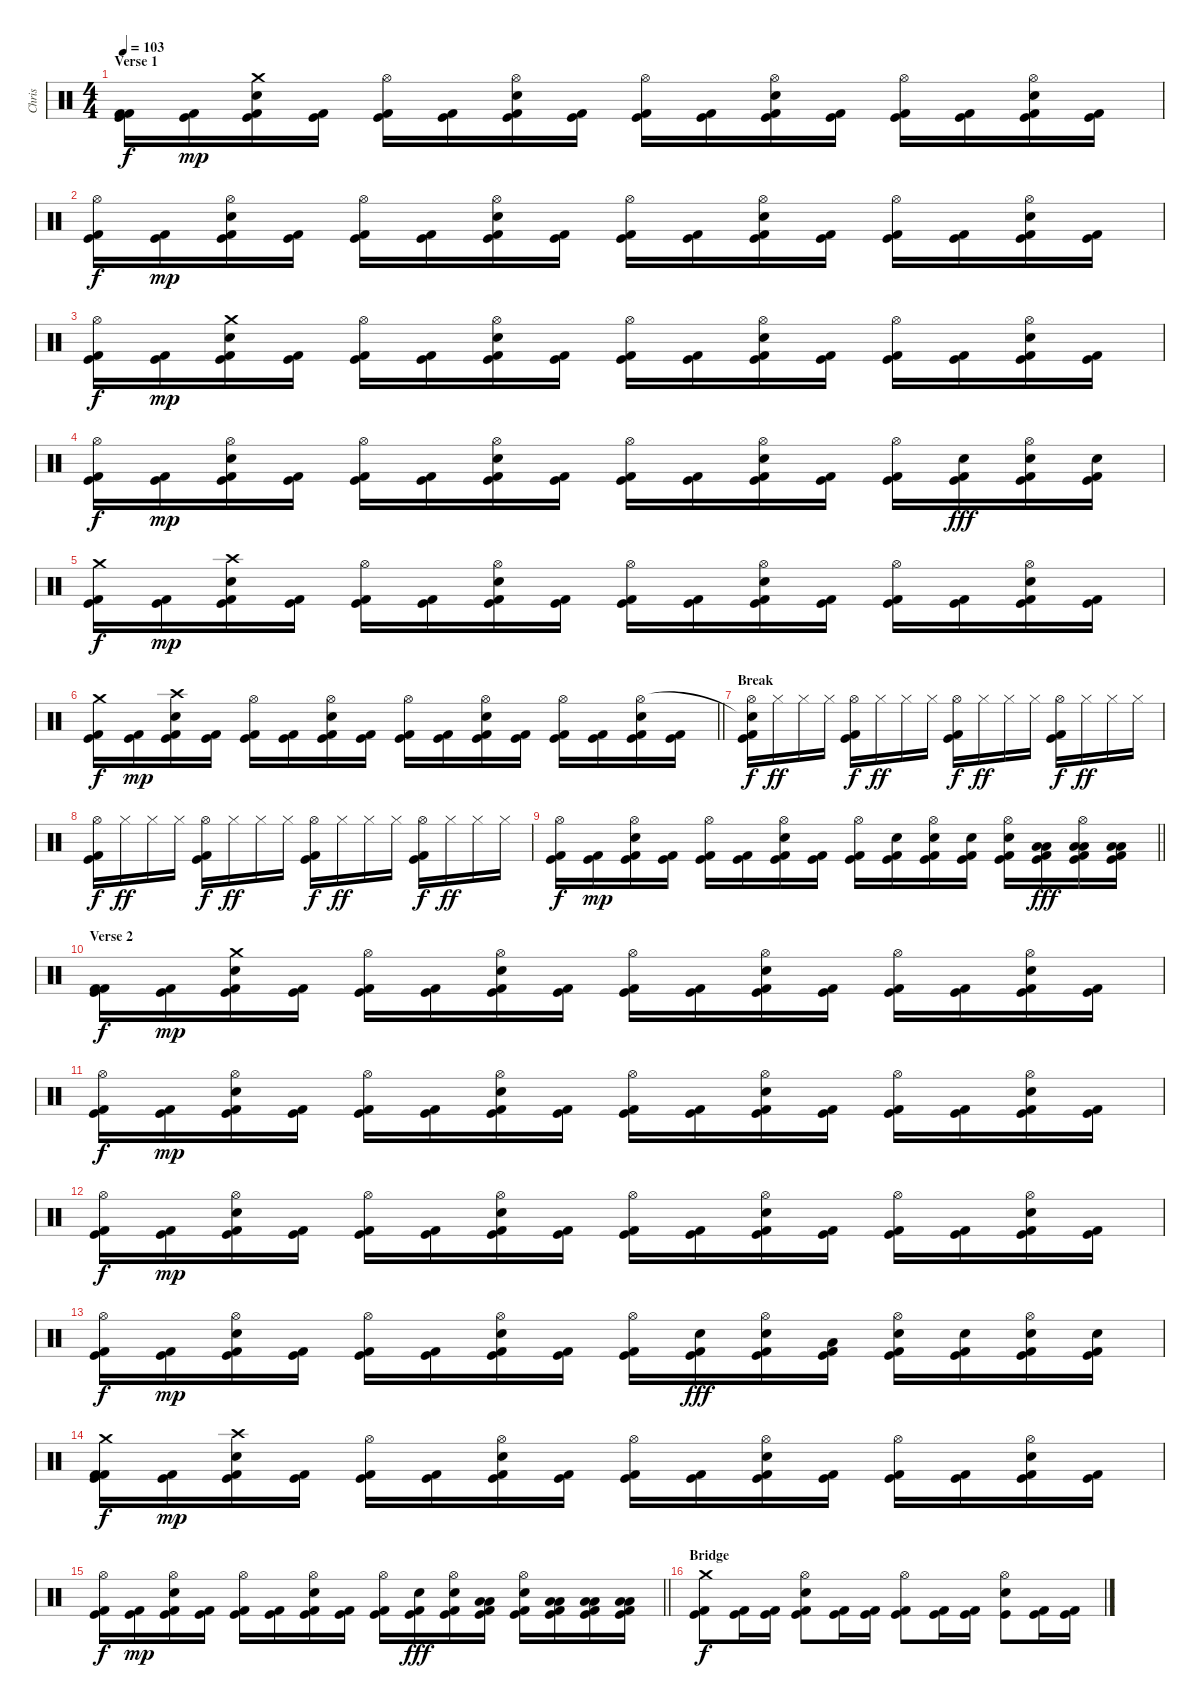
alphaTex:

\track ("Chris" "Chris") {instrument percussion}
\staff {score}
\articulation defaults
\ts (4 4)
\section ("" "Verse 1")
\tempo 103
\clef neutral
\ks c
("Kick (hit)" "Kick (hit) 2" "Kick (hit) 2").16{dy f} ("Kick (hit)" "Kick (hit) 2").16{dy mp} ("Kick (hit)" "Kick (hit) 2" "Electric Snare (hit)" "Crash medium (hit)").16 ("Kick (hit)" "Kick (hit) 2").16 ("Kick (hit)" "Kick (hit) 2" "Hi-Hat (open)").16 ("Kick (hit)" "Kick (hit) 2").16 ("Kick (hit)" "Kick (hit) 2" "Electric Snare (hit)" "Hi-Hat (open)").16 ("Kick (hit)" "Kick (hit) 2").16 ("Kick (hit)" "Kick (hit) 2" "Hi-Hat (open)").16 ("Kick (hit)" "Kick (hit) 2").16 ("Kick (hit)" "Kick (hit) 2" "Electric Snare (hit)" "Hi-Hat (open)").16 ("Kick (hit)" "Kick (hit) 2").16 ("Kick (hit)" "Kick (hit) 2" "Hi-Hat (open)").16 ("Kick (hit)" "Kick (hit) 2").16 ("Kick (hit)" "Kick (hit) 2" "Electric Snare (hit)" "Hi-Hat (open)").16 ("Kick (hit)" "Kick (hit) 2").16 |
("Kick (hit)" "Kick (hit) 2" "Hi-Hat (open)").16{dy f} ("Kick (hit)" "Kick (hit) 2").16{dy mp} ("Kick (hit)" "Kick (hit) 2" "Electric Snare (hit)" "Hi-Hat (open)").16 ("Kick (hit)" "Kick (hit) 2").16 ("Kick (hit)" "Kick (hit) 2" "Hi-Hat (open)").16 ("Kick (hit)" "Kick (hit) 2").16 ("Kick (hit)" "Kick (hit) 2" "Electric Snare (hit)" "Hi-Hat (open)").16 ("Kick (hit)" "Kick (hit) 2").16 ("Kick (hit)" "Kick (hit) 2" "Hi-Hat (open)").16 ("Kick (hit)" "Kick (hit) 2").16 ("Kick (hit)" "Kick (hit) 2" "Electric Snare (hit)" "Hi-Hat (open)").16 ("Kick (hit)" "Kick (hit) 2").16 ("Kick (hit)" "Kick (hit) 2" "Hi-Hat (open)").16 ("Kick (hit)" "Kick (hit) 2").16 ("Kick (hit)" "Kick (hit) 2" "Electric Snare (hit)" "Hi-Hat (open)").16 ("Kick (hit)" "Kick (hit) 2").16 |
("Kick (hit)" "Kick (hit) 2" "Hi-Hat (open)").16{dy f} ("Kick (hit)" "Kick (hit) 2").16{dy mp} ("Kick (hit)" "Kick (hit) 2" "Electric Snare (hit)" "Crash medium (hit)").16 ("Kick (hit)" "Kick (hit) 2").16 ("Kick (hit)" "Kick (hit) 2" "Hi-Hat (open)").16 ("Kick (hit)" "Kick (hit) 2").16 ("Kick (hit)" "Kick (hit) 2" "Electric Snare (hit)" "Hi-Hat (open)").16 ("Kick (hit)" "Kick (hit) 2").16 ("Kick (hit)" "Kick (hit) 2" "Hi-Hat (open)").16 ("Kick (hit)" "Kick (hit) 2").16 ("Kick (hit)" "Kick (hit) 2" "Electric Snare (hit)" "Hi-Hat (open)").16 ("Kick (hit)" "Kick (hit) 2").16 ("Kick (hit)" "Kick (hit) 2" "Hi-Hat (open)").16 ("Kick (hit)" "Kick (hit) 2").16 ("Kick (hit)" "Kick (hit) 2" "Electric Snare (hit)" "Hi-Hat (open)").16 ("Kick (hit)" "Kick (hit) 2").16 |
("Kick (hit)" "Kick (hit) 2" "Hi-Hat (open)").16{dy f} ("Kick (hit)" "Kick (hit) 2").16{dy mp} ("Kick (hit)" "Kick (hit) 2" "Electric Snare (hit)" "Hi-Hat (open)").16 ("Kick (hit)" "Kick (hit) 2").16 ("Kick (hit)" "Kick (hit) 2" "Hi-Hat (open)").16 ("Kick (hit)" "Kick (hit) 2").16 ("Kick (hit)" "Kick (hit) 2" "Electric Snare (hit)" "Hi-Hat (open)").16 ("Kick (hit)" "Kick (hit) 2").16 ("Kick (hit)" "Kick (hit) 2" "Hi-Hat (open)").16 ("Kick (hit)" "Kick (hit) 2").16 ("Kick (hit)" "Kick (hit) 2" "Electric Snare (hit)" "Hi-Hat (open)").16 ("Kick (hit)" "Kick (hit) 2").16 ("Kick (hit)" "Kick (hit) 2" "Hi-Hat (open)").16 ("Kick (hit)" "Kick (hit) 2" "Electric Snare (hit)").16{dy fff} ("Kick (hit)" "Kick (hit) 2" "Electric Snare (hit)" "Hi-Hat (open)").16 ("Kick (hit)" "Kick (hit) 2" "Electric Snare (hit)").16 |
("Kick (hit)" "Kick (hit) 2" "Crash medium (hit)").16{dy f} ("Kick (hit)" "Kick (hit) 2").16{dy mp} ("Kick (hit)" "Kick (hit) 2" "Electric Snare (hit)" "Crash high (hit)").16 ("Kick (hit)" "Kick (hit) 2").16 ("Kick (hit)" "Kick (hit) 2" "Hi-Hat (open)").16 ("Kick (hit)" "Kick (hit) 2").16 ("Kick (hit)" "Kick (hit) 2" "Electric Snare (hit)" "Hi-Hat (open)").16 ("Kick (hit)" "Kick (hit) 2").16 ("Kick (hit)" "Kick (hit) 2" "Hi-Hat (open)").16 ("Kick (hit)" "Kick (hit) 2").16 ("Kick (hit)" "Kick (hit) 2" "Electric Snare (hit)" "Hi-Hat (open)").16 ("Kick (hit)" "Kick (hit) 2").16 ("Kick (hit)" "Kick (hit) 2" "Hi-Hat (open)").16 ("Kick (hit)" "Kick (hit) 2").16 ("Kick (hit)" "Kick (hit) 2" "Electric Snare (hit)" "Hi-Hat (open)").16 ("Kick (hit)" "Kick (hit) 2").16 |
\barLineRight lightlight
("Kick (hit)" "Kick (hit) 2" "Crash medium (hit)").16{dy f} ("Kick (hit)" "Kick (hit) 2").16{dy mp} ("Kick (hit)" "Kick (hit) 2" "Electric Snare (hit)" "Crash high (hit)").16 ("Kick (hit)" "Kick (hit) 2").16 ("Kick (hit)" "Kick (hit) 2" "Hi-Hat (open)").16 ("Kick (hit)" "Kick (hit) 2").16 ("Kick (hit)" "Kick (hit) 2" "Electric Snare (hit)" "Hi-Hat (open)").16 ("Kick (hit)" "Kick (hit) 2").16 ("Kick (hit)" "Kick (hit) 2" "Hi-Hat (open)").16 ("Kick (hit)" "Kick (hit) 2").16 ("Kick (hit)" "Kick (hit) 2" "Electric Snare (hit)" "Hi-Hat (open)").16 ("Kick (hit)" "Kick (hit) 2").16 ("Kick (hit)" "Kick (hit) 2" "Hi-Hat (open)").16 ("Kick (hit)" "Kick (hit) 2").16 ("Kick (hit)" "Kick (hit) 2" "Electric Snare (hit)" "Hi-Hat (open)").16 ("Kick (hit)" "Kick (hit) 2").16 |
\section ("" "Break")
("Kick (hit)" "Kick (hit) 2" "Hi-Hat (open)" "Snare (hit)"{t}).16{dy f} "Hi-Hat (closed)".16{dy ff} "Hi-Hat (closed)".16 "Hi-Hat (closed)".16 ("Kick (hit)" "Kick (hit) 2" "Hi-Hat (open)").16{dy f} "Hi-Hat (closed)".16{dy ff} "Hi-Hat (closed)".16 "Hi-Hat (closed)".16 ("Kick (hit)" "Kick (hit) 2" "Hi-Hat (open)").16{dy f} "Hi-Hat (closed)".16{dy ff} "Hi-Hat (closed)".16 "Hi-Hat (closed)".16 ("Kick (hit)" "Kick (hit) 2" "Hi-Hat (open)").16{dy f} "Hi-Hat (closed)".16{dy ff} "Hi-Hat (closed)".16 "Hi-Hat (closed)".16 |
("Kick (hit)" "Kick (hit) 2" "Hi-Hat (open)").16{dy f} "Hi-Hat (closed)".16{dy ff} "Hi-Hat (closed)".16 "Hi-Hat (closed)".16 ("Kick (hit)" "Kick (hit) 2" "Hi-Hat (open)").16{dy f} "Hi-Hat (closed)".16{dy ff} "Hi-Hat (closed)".16 "Hi-Hat (closed)".16 ("Kick (hit)" "Kick (hit) 2" "Hi-Hat (open)").16{dy f} "Hi-Hat (closed)".16{dy ff} "Hi-Hat (closed)".16 "Hi-Hat (closed)".16 ("Kick (hit)" "Kick (hit) 2" "Hi-Hat (open)").16{dy f} "Hi-Hat (closed)".16{dy ff} "Hi-Hat (closed)".16 "Hi-Hat (closed)".16 |
\barLineRight lightlight
("Kick (hit)" "Kick (hit) 2" "Hi-Hat (open)").16{dy f} ("Kick (hit)" "Kick (hit) 2").16{dy mp} ("Kick (hit)" "Kick (hit) 2" "Electric Snare (hit)" "Hi-Hat (open)").16 ("Kick (hit)" "Kick (hit) 2").16 ("Kick (hit)" "Kick (hit) 2" "Hi-Hat (open)").16 ("Kick (hit)" "Kick (hit) 2").16 ("Kick (hit)" "Kick (hit) 2" "Electric Snare (hit)" "Hi-Hat (open)").16 ("Kick (hit)" "Kick (hit) 2").16 ("Kick (hit)" "Kick (hit) 2" "Hi-Hat (open)").16 ("Kick (hit)" "Kick (hit) 2" "Electric Snare (hit)").16 ("Kick (hit)" "Kick (hit) 2" "Electric Snare (hit)" "Hi-Hat (open)").16 ("Kick (hit)" "Kick (hit) 2" "Electric Snare (hit)").16 ("Kick (hit)" "Kick (hit) 2" "Electric Snare (hit)" "Hi-Hat (open)").16 ("Kick (hit)" "Kick (hit) 2" "Low Tom (hit)" "Low Tom (hit)").16{dy fff} ("Kick (hit)" "Kick (hit) 2" "Low Tom (hit)" "Hi-Hat (open)" "Low Tom (hit)").16 ("Kick (hit)" "Kick (hit) 2" "Low Tom (hit)" "Low Tom (hit)").16 |
\section ("" "Verse 2")
("Kick (hit)" "Kick (hit) 2" "Kick (hit) 2").16{dy f} ("Kick (hit)" "Kick (hit) 2").16{dy mp} ("Kick (hit)" "Kick (hit) 2" "Electric Snare (hit)" "Crash medium (hit)").16 ("Kick (hit)" "Kick (hit) 2").16 ("Kick (hit)" "Kick (hit) 2" "Hi-Hat (open)").16 ("Kick (hit)" "Kick (hit) 2").16 ("Kick (hit)" "Kick (hit) 2" "Electric Snare (hit)" "Hi-Hat (open)").16 ("Kick (hit)" "Kick (hit) 2").16 ("Kick (hit)" "Kick (hit) 2" "Hi-Hat (open)").16 ("Kick (hit)" "Kick (hit) 2").16 ("Kick (hit)" "Kick (hit) 2" "Electric Snare (hit)" "Hi-Hat (open)").16 ("Kick (hit)" "Kick (hit) 2").16 ("Kick (hit)" "Kick (hit) 2" "Hi-Hat (open)").16 ("Kick (hit)" "Kick (hit) 2").16 ("Kick (hit)" "Kick (hit) 2" "Electric Snare (hit)" "Hi-Hat (open)").16 ("Kick (hit)" "Kick (hit) 2").16 |
("Kick (hit)" "Kick (hit) 2" "Hi-Hat (open)").16{dy f} ("Kick (hit)" "Kick (hit) 2").16{dy mp} ("Kick (hit)" "Kick (hit) 2" "Electric Snare (hit)" "Hi-Hat (open)").16 ("Kick (hit)" "Kick (hit) 2").16 ("Kick (hit)" "Kick (hit) 2" "Hi-Hat (open)").16 ("Kick (hit)" "Kick (hit) 2").16 ("Kick (hit)" "Kick (hit) 2" "Electric Snare (hit)" "Hi-Hat (open)").16 ("Kick (hit)" "Kick (hit) 2").16 ("Kick (hit)" "Kick (hit) 2" "Hi-Hat (open)").16 ("Kick (hit)" "Kick (hit) 2").16 ("Kick (hit)" "Kick (hit) 2" "Electric Snare (hit)" "Hi-Hat (open)").16 ("Kick (hit)" "Kick (hit) 2").16 ("Kick (hit)" "Kick (hit) 2" "Hi-Hat (open)").16 ("Kick (hit)" "Kick (hit) 2").16 ("Kick (hit)" "Kick (hit) 2" "Electric Snare (hit)" "Hi-Hat (open)").16 ("Kick (hit)" "Kick (hit) 2").16 |
("Kick (hit)" "Kick (hit) 2" "Hi-Hat (open)").16{dy f} ("Kick (hit)" "Kick (hit) 2").16{dy mp} ("Kick (hit)" "Kick (hit) 2" "Electric Snare (hit)" "Hi-Hat (open)").16 ("Kick (hit)" "Kick (hit) 2").16 ("Kick (hit)" "Kick (hit) 2" "Hi-Hat (open)").16 ("Kick (hit)" "Kick (hit) 2").16 ("Kick (hit)" "Kick (hit) 2" "Electric Snare (hit)" "Hi-Hat (open)").16 ("Kick (hit)" "Kick (hit) 2").16 ("Kick (hit)" "Kick (hit) 2" "Hi-Hat (open)").16 ("Kick (hit)" "Kick (hit) 2").16 ("Kick (hit)" "Kick (hit) 2" "Electric Snare (hit)" "Hi-Hat (open)").16 ("Kick (hit)" "Kick (hit) 2").16 ("Kick (hit)" "Kick (hit) 2" "Hi-Hat (open)").16 ("Kick (hit)" "Kick (hit) 2").16 ("Kick (hit)" "Kick (hit) 2" "Electric Snare (hit)" "Hi-Hat (open)").16 ("Kick (hit)" "Kick (hit) 2").16 |
("Kick (hit)" "Kick (hit) 2" "Hi-Hat (open)").16{dy f} ("Kick (hit)" "Kick (hit) 2").16{dy mp} ("Kick (hit)" "Kick (hit) 2" "Electric Snare (hit)" "Hi-Hat (open)").16 ("Kick (hit)" "Kick (hit) 2").16 ("Kick (hit)" "Kick (hit) 2" "Hi-Hat (open)").16 ("Kick (hit)" "Kick (hit) 2").16 ("Kick (hit)" "Kick (hit) 2" "Electric Snare (hit)" "Hi-Hat (open)").16 ("Kick (hit)" "Kick (hit) 2").16 ("Kick (hit)" "Kick (hit) 2" "Hi-Hat (open)").16 ("Kick (hit)" "Kick (hit) 2" "Electric Snare (hit)").16{dy fff} ("Kick (hit)" "Kick (hit) 2" "Electric Snare (hit)" "Hi-Hat (open)").16 ("Kick (hit)" "Kick (hit) 2" "Low Tom (hit)").16 ("Kick (hit)" "Kick (hit) 2" "Electric Snare (hit)" "Hi-Hat (open)").16 ("Kick (hit)" "Kick (hit) 2" "Electric Snare (hit)").16 ("Kick (hit)" "Kick (hit) 2" "Electric Snare (hit)" "Hi-Hat (open)").16 ("Kick (hit)" "Kick (hit) 2" "Electric Snare (hit)").16 |
("Kick (hit)" "Kick (hit) 2" "Kick (hit) 2" "Crash medium (hit)").16{dy f} ("Kick (hit)" "Kick (hit) 2").16{dy mp} ("Kick (hit)" "Kick (hit) 2" "Electric Snare (hit)" "Crash high (hit)").16 ("Kick (hit)" "Kick (hit) 2").16 ("Kick (hit)" "Kick (hit) 2" "Hi-Hat (open)").16 ("Kick (hit)" "Kick (hit) 2").16 ("Kick (hit)" "Kick (hit) 2" "Electric Snare (hit)" "Hi-Hat (open)").16 ("Kick (hit)" "Kick (hit) 2").16 ("Kick (hit)" "Kick (hit) 2" "Hi-Hat (open)").16 ("Kick (hit)" "Kick (hit) 2").16 ("Kick (hit)" "Kick (hit) 2" "Electric Snare (hit)" "Hi-Hat (open)").16 ("Kick (hit)" "Kick (hit) 2").16 ("Kick (hit)" "Kick (hit) 2" "Hi-Hat (open)").16 ("Kick (hit)" "Kick (hit) 2").16 ("Kick (hit)" "Kick (hit) 2" "Electric Snare (hit)" "Hi-Hat (open)").16 ("Kick (hit)" "Kick (hit) 2").16 |
\barLineRight lightlight
("Kick (hit)" "Kick (hit) 2" "Hi-Hat (open)").16{dy f} ("Kick (hit)" "Kick (hit) 2").16{dy mp} ("Kick (hit)" "Kick (hit) 2" "Electric Snare (hit)" "Hi-Hat (open)").16 ("Kick (hit)" "Kick (hit) 2").16 ("Kick (hit)" "Kick (hit) 2" "Hi-Hat (open)").16 ("Kick (hit)" "Kick (hit) 2").16 ("Kick (hit)" "Kick (hit) 2" "Electric Snare (hit)" "Hi-Hat (open)").16 ("Kick (hit)" "Kick (hit) 2").16 ("Kick (hit)" "Kick (hit) 2" "Hi-Hat (open)").16 ("Kick (hit)" "Kick (hit) 2" "Electric Snare (hit)").16{dy fff} ("Kick (hit)" "Kick (hit) 2" "Electric Snare (hit)" "Hi-Hat (open)").16 ("Kick (hit)" "Kick (hit) 2" "Low Tom (hit)" "Low Tom (hit)").16 ("Kick (hit)" "Kick (hit) 2" "Electric Snare (hit)" "Hi-Hat (open)").16 ("Kick (hit)" "Kick (hit) 2" "Low Tom (hit)" "Low Tom (hit)").16 ("Kick (hit)" "Kick (hit) 2" "Low Tom (hit)" "Low Tom (hit)").16 ("Kick (hit)" "Kick (hit) 2" "Low Tom (hit)" "Low Tom (hit)").16 |
\section ("" "Bridge")
("Kick (hit)" "Kick (hit) 2" "Crash medium (hit)").8{dy f} ("Kick (hit)" "Kick (hit) 2").16 ("Kick (hit)" "Kick (hit) 2").16 ("Kick (hit)" "Kick (hit) 2" "Electric Snare (hit)" "Hi-Hat (open)").8 ("Kick (hit)" "Kick (hit) 2").16 ("Kick (hit)" "Kick (hit) 2").16 ("Kick (hit)" "Kick (hit) 2" "Hi-Hat (open)").8 ("Kick (hit)" "Kick (hit) 2").16 ("Kick (hit)" "Kick (hit) 2").16 ("Kick (hit)" "Electric Snare (hit)" "Hi-Hat (open)").8 ("Kick (hit)" "Kick (hit) 2").16 ("Kick (hit)" "Kick (hit) 2").16
